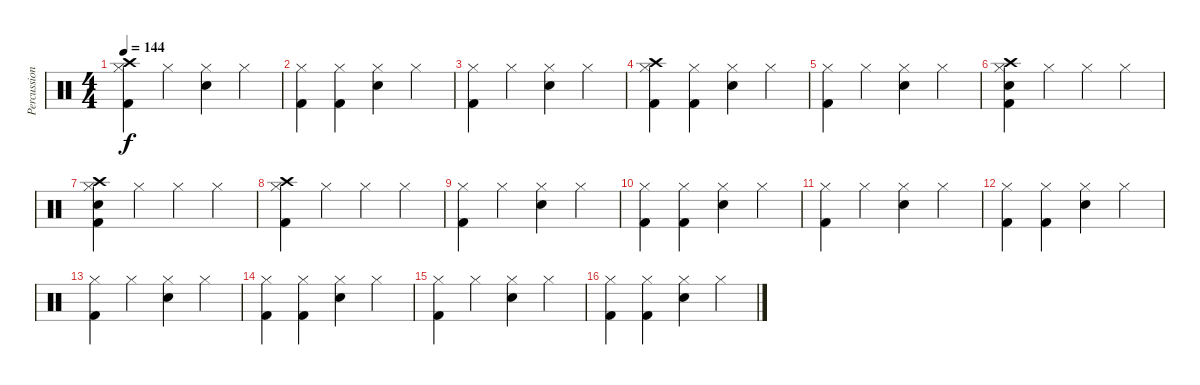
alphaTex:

\track ("Percussion" "Percussion") {instrument percussion}
\staff {score}
\articulation defaults
\ts (4 4)
\tempo 144
\clef neutral
\ks c
("Crash high (hit)" "Hi-Hat (closed)" "Kick (hit) 2").4{dy f} "Hi-Hat (closed)".4 ("Hi-Hat (closed)" "Electric Snare (hit)").4 "Hi-Hat (closed)".4 |
("Hi-Hat (closed)" "Kick (hit) 2").4 ("Hi-Hat (closed)" "Kick (hit) 2").4 ("Hi-Hat (closed)" "Electric Snare (hit)").4 "Hi-Hat (closed)".4 |
("Hi-Hat (closed)" "Kick (hit) 2").4 "Hi-Hat (closed)".4 ("Hi-Hat (closed)" "Electric Snare (hit)").4 "Hi-Hat (closed)".4 |
("Crash high (hit)" "Hi-Hat (closed)" "Kick (hit) 2").4 ("Hi-Hat (closed)" "Kick (hit) 2").4 ("Hi-Hat (closed)" "Electric Snare (hit)").4 "Hi-Hat (closed)".4 |
("Hi-Hat (closed)" "Kick (hit) 2").4 "Hi-Hat (closed)".4 ("Hi-Hat (closed)" "Electric Snare (hit)").4 "Hi-Hat (closed)".4 |
("Crash high (hit)" "Hi-Hat (closed)" "Electric Snare (hit)" "Kick (hit) 2").4 "Hi-Hat (closed)".4 "Hi-Hat (closed)".4 "Hi-Hat (closed)".4 |
("Crash high (hit)" "Hi-Hat (closed)" "Electric Snare (hit)" "Kick (hit) 2").4 "Hi-Hat (closed)".4 "Hi-Hat (closed)".4 "Hi-Hat (closed)".4 |
("Hi-Hat (closed)" "Crash high (hit)" "Kick (hit) 2").4 "Hi-Hat (closed)".4 "Hi-Hat (closed)".4 "Hi-Hat (closed)".4 |
("Hi-Hat (closed)" "Kick (hit) 2").4 "Hi-Hat (closed)".4 ("Hi-Hat (closed)" "Electric Snare (hit)").4 "Hi-Hat (closed)".4 |
("Hi-Hat (closed)" "Kick (hit) 2").4 ("Hi-Hat (closed)" "Kick (hit) 2").4 ("Hi-Hat (closed)" "Electric Snare (hit)").4 "Hi-Hat (closed)".4 |
("Hi-Hat (closed)" "Kick (hit) 2").4 "Hi-Hat (closed)".4 ("Hi-Hat (closed)" "Electric Snare (hit)").4 "Hi-Hat (closed)".4 |
("Hi-Hat (closed)" "Kick (hit) 2").4 ("Hi-Hat (closed)" "Kick (hit) 2").4 ("Hi-Hat (closed)" "Electric Snare (hit)").4 "Hi-Hat (closed)".4 |
("Hi-Hat (closed)" "Kick (hit) 2").4 "Hi-Hat (closed)".4 ("Hi-Hat (closed)" "Electric Snare (hit)").4 "Hi-Hat (closed)".4 |
("Hi-Hat (closed)" "Kick (hit) 2").4 ("Hi-Hat (closed)" "Kick (hit) 2").4 ("Hi-Hat (closed)" "Electric Snare (hit)").4 "Hi-Hat (closed)".4 |
("Hi-Hat (closed)" "Kick (hit) 2").4 "Hi-Hat (closed)".4 ("Hi-Hat (closed)" "Electric Snare (hit)").4 "Hi-Hat (closed)".4 |
("Hi-Hat (closed)" "Kick (hit) 2").4 ("Hi-Hat (closed)" "Kick (hit) 2").4 ("Hi-Hat (closed)" "Electric Snare (hit)").4 "Hi-Hat (closed)".4
